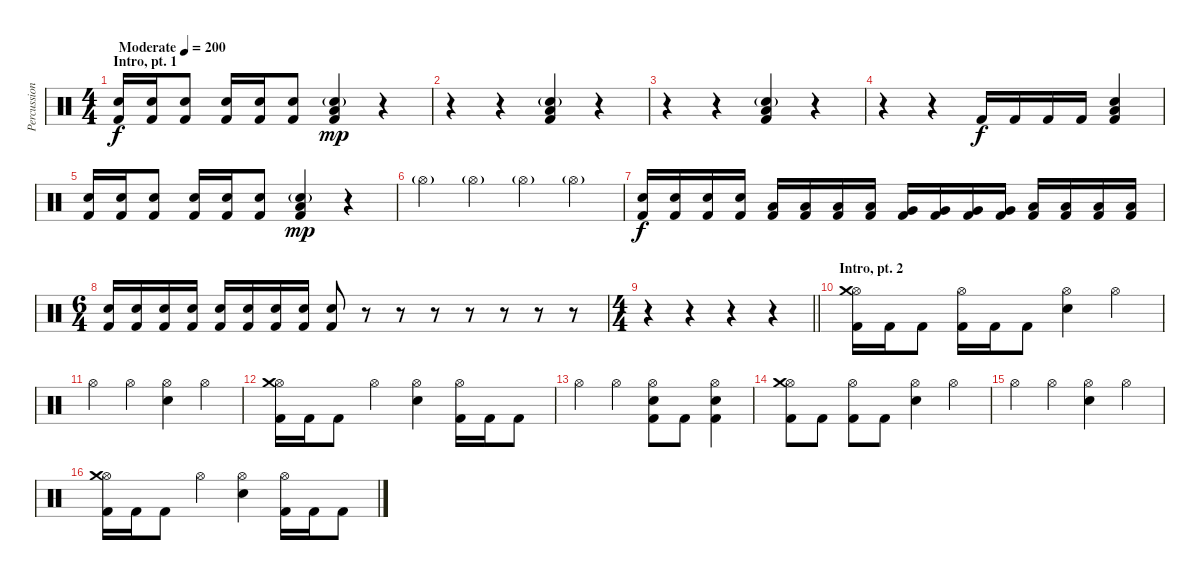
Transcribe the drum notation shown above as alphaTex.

\track ("Percussions" "Percussion") {instrument percussion}
\staff {score}
\articulation defaults
\ts (4 4)
\section ("" "Intro, pt. 1")
\tempo (200 "Moderate")
\clef neutral
\ks c
("Electric Snare (hit)" "Kick (hit) 2").16{dy f} ("Electric Snare (hit)" "Kick (hit) 2").16 ("Electric Snare (hit)" "Kick (hit) 2").8 ("Electric Snare (hit)" "Kick (hit) 2").16 ("Electric Snare (hit)" "Kick (hit) 2").16 ("Electric Snare (hit)" "Kick (hit) 2").8 ("Snare (hit) 2"{g} "Low Tom (hit)" "Kick (hit) 2").4{dy mp} r.4 |
r.4 r.4 ("Snare (hit) 2"{g} "Low Tom (hit)" "Kick (hit) 2").4 r.4 |
r.4 r.4 ("Snare (hit) 2"{g} "Low Tom (hit)" "Kick (hit) 2").4 r.4 |
r.4 r.4 "Kick (hit) 2".16{dy f} "Kick (hit) 2".16 "Kick (hit) 2".16 "Kick (hit) 2".16 ("Snare (hit) 2" "Low Tom (hit)" "Kick (hit) 2").4 |
("Electric Snare (hit)" "Kick (hit) 2").16 ("Electric Snare (hit)" "Kick (hit) 2").16 ("Electric Snare (hit)" "Kick (hit) 2").8 ("Electric Snare (hit)" "Kick (hit) 2").16 ("Electric Snare (hit)" "Kick (hit) 2").16 ("Electric Snare (hit)" "Kick (hit) 2").8 ("Snare (hit) 2"{g} "Low Tom (hit)" "Kick (hit) 2").4{dy mp} r.4 |
"Hi-Hat (open)"{g}.4 "Hi-Hat (open)"{g}.4 "Hi-Hat (open)"{g}.4 "Hi-Hat (open)"{g}.4 |
("Electric Snare (hit)" "Kick (hit) 2").16{dy f} ("Electric Snare (hit)" "Kick (hit) 2").16 ("Electric Snare (hit)" "Kick (hit) 2").16 ("Electric Snare (hit)" "Kick (hit) 2").16 ("Low Tom (hit)" "Kick (hit) 2").16 ("Low Tom (hit)" "Kick (hit) 2").16 ("Low Tom (hit)" "Kick (hit) 2").16 ("Low Tom (hit)" "Kick (hit) 2").16 ("Very Low Tom (hit)" "Kick (hit) 2").16 ("Very Low Tom (hit)" "Kick (hit) 2").16 ("Very Low Tom (hit)" "Kick (hit) 2").16 ("Very Low Tom (hit)" "Kick (hit) 2").16 ("Low Tom (hit)" "Kick (hit) 2").16 ("Low Tom (hit)" "Kick (hit) 2").16 ("Low Tom (hit)" "Kick (hit) 2").16 ("Low Tom (hit)" "Kick (hit) 2").16 |
\ts (6 4)
("Electric Snare (hit)" "Kick (hit) 2").16 ("Electric Snare (hit)" "Kick (hit) 2").16 ("Electric Snare (hit)" "Kick (hit) 2").16 ("Electric Snare (hit)" "Kick (hit) 2").16 ("Electric Snare (hit)" "Kick (hit) 2").16 ("Electric Snare (hit)" "Kick (hit) 2").16 ("Electric Snare (hit)" "Kick (hit) 2").16 ("Electric Snare (hit)" "Kick (hit) 2").16 ("Electric Snare (hit)" "Kick (hit) 2").8 r.8 r.8 r.8 r.8 r.8 r.8 r.8 |
\ts (4 4)
\barLineRight lightlight
r.4 r.4 r.4 r.4 |
\section ("" "Intro, pt. 2")
("Hi-Hat (open)" "Crash medium (hit)" "Kick (hit) 2").16 "Kick (hit) 2".16 "Kick (hit) 2".8 ("Hi-Hat (open)" "Kick (hit) 2").16 "Kick (hit) 2".16 "Kick (hit) 2".8 ("Hi-Hat (open)" "Electric Snare (hit)").4 "Hi-Hat (open)".4 |
"Hi-Hat (open)".4 "Hi-Hat (open)".4 ("Hi-Hat (open)" "Electric Snare (hit)").4 "Hi-Hat (open)".4 |
("Hi-Hat (open)" "Crash medium (hit)" "Kick (hit) 2").16 "Kick (hit) 2".16 "Kick (hit) 2".8 "Hi-Hat (open)".4 ("Hi-Hat (open)" "Electric Snare (hit)").4 ("Hi-Hat (open)" "Kick (hit) 2").16 "Kick (hit) 2".16 "Kick (hit) 2".8 |
"Hi-Hat (open)".4 "Hi-Hat (open)".4 ("Hi-Hat (open)" "Electric Snare (hit)" "Kick (hit) 2").8 "Kick (hit) 2".8 ("Hi-Hat (open)" "Electric Snare (hit)" "Kick (hit) 2").4 |
("Hi-Hat (open)" "Crash medium (hit)" "Kick (hit) 2").8 "Kick (hit) 2".8 ("Hi-Hat (open)" "Kick (hit) 2").8 "Kick (hit) 2".8 ("Hi-Hat (open)" "Electric Snare (hit)").4 "Hi-Hat (open)".4 |
"Hi-Hat (open)".4 "Hi-Hat (open)".4 ("Hi-Hat (open)" "Electric Snare (hit)").4 "Hi-Hat (open)".4 |
("Hi-Hat (open)" "Crash medium (hit)" "Kick (hit) 2").16 "Kick (hit) 2".16 "Kick (hit) 2".8 "Hi-Hat (open)".4 ("Hi-Hat (open)" "Electric Snare (hit)").4 ("Hi-Hat (open)" "Kick (hit) 2").16 "Kick (hit) 2".16 "Kick (hit) 2".8
